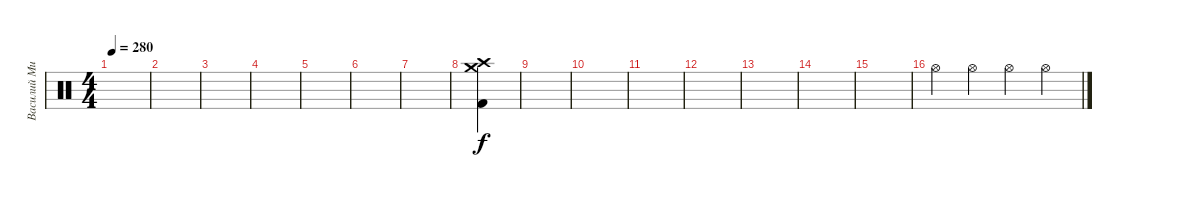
\track ("Василий Михалыч-ударные" "Василий Ми") {instrument percussion}
\staff {score}
\articulation defaults
\ts (4 4)
\tempo 280
\clef neutral
\ks c
|
|
|
|
|
|
|
("Kick (hit) 2" "Crash high (hit)" "Crash medium (hit)").4 |
|
|
|
|
|
|
|
"Hi-Hat (open)".4 "Hi-Hat (open)".4 "Hi-Hat (open)".4 "Hi-Hat (open)".4
